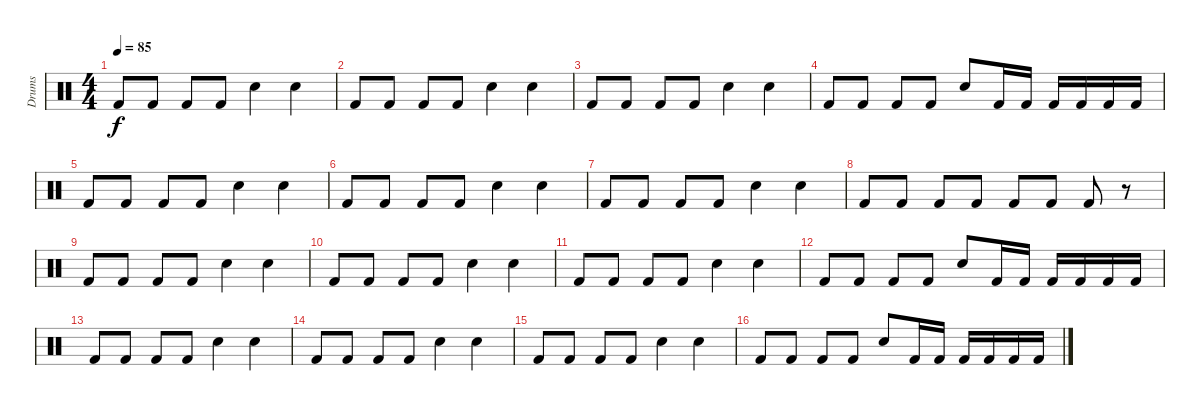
\track ("Drums" "Drums") {instrument percussion}
\staff {score}
\articulation defaults
\ts (4 4)
\tempo 85
\clef neutral
\ks c "Kick (hit) 2".8{dy f} "Kick (hit) 2".8 "Kick (hit) 2".8 "Kick (hit) 2".8 "Snare (hit) 2".4 "Snare (hit) 2".4
|
"Kick (hit) 2".8 "Kick (hit) 2".8 "Kick (hit) 2".8 "Kick (hit) 2".8 "Snare (hit) 2".4 "Snare (hit) 2".4 |
"Kick (hit) 2".8 "Kick (hit) 2".8 "Kick (hit) 2".8 "Kick (hit) 2".8 "Snare (hit) 2".4 "Snare (hit) 2".4 |
"Kick (hit) 2".8 "Kick (hit) 2".8 "Kick (hit) 2".8 "Kick (hit) 2".8 "Snare (hit) 2".8 "Kick (hit) 2".16 "Kick (hit) 2".16 "Kick (hit) 2".16 "Kick (hit) 2".16 "Kick (hit) 2".16 "Kick (hit) 2".16 |
"Kick (hit) 2".8 "Kick (hit) 2".8 "Kick (hit) 2".8 "Kick (hit) 2".8 "Snare (hit) 2".4 "Snare (hit) 2".4 |
"Kick (hit) 2".8 "Kick (hit) 2".8 "Kick (hit) 2".8 "Kick (hit) 2".8 "Snare (hit) 2".4 "Snare (hit) 2".4 |
"Kick (hit) 2".8 "Kick (hit) 2".8 "Kick (hit) 2".8 "Kick (hit) 2".8 "Snare (hit) 2".4 "Snare (hit) 2".4 |
"Kick (hit) 2".8 "Kick (hit) 2".8 "Kick (hit) 2".8 "Kick (hit) 2".8 "Kick (hit) 2".8 "Kick (hit) 2".8 "Kick (hit) 2".8 r.8 |
"Kick (hit) 2".8 "Kick (hit) 2".8 "Kick (hit) 2".8 "Kick (hit) 2".8 "Snare (hit) 2".4 "Snare (hit) 2".4 |
"Kick (hit) 2".8 "Kick (hit) 2".8 "Kick (hit) 2".8 "Kick (hit) 2".8 "Snare (hit) 2".4 "Snare (hit) 2".4 |
"Kick (hit) 2".8 "Kick (hit) 2".8 "Kick (hit) 2".8 "Kick (hit) 2".8 "Snare (hit) 2".4 "Snare (hit) 2".4 |
"Kick (hit) 2".8 "Kick (hit) 2".8 "Kick (hit) 2".8 "Kick (hit) 2".8 "Snare (hit) 2".8 "Kick (hit) 2".16 "Kick (hit) 2".16 "Kick (hit) 2".16 "Kick (hit) 2".16 "Kick (hit) 2".16 "Kick (hit) 2".16 |
"Kick (hit) 2".8 "Kick (hit) 2".8 "Kick (hit) 2".8 "Kick (hit) 2".8 "Snare (hit) 2".4 "Snare (hit) 2".4 |
"Kick (hit) 2".8 "Kick (hit) 2".8 "Kick (hit) 2".8 "Kick (hit) 2".8 "Snare (hit) 2".4 "Snare (hit) 2".4 |
"Kick (hit) 2".8 "Kick (hit) 2".8 "Kick (hit) 2".8 "Kick (hit) 2".8 "Snare (hit) 2".4 "Snare (hit) 2".4 |
"Kick (hit) 2".8 "Kick (hit) 2".8 "Kick (hit) 2".8 "Kick (hit) 2".8 "Snare (hit) 2".8 "Kick (hit) 2".16 "Kick (hit) 2".16 "Kick (hit) 2".16 "Kick (hit) 2".16 "Kick (hit) 2".16 "Kick (hit) 2".16
